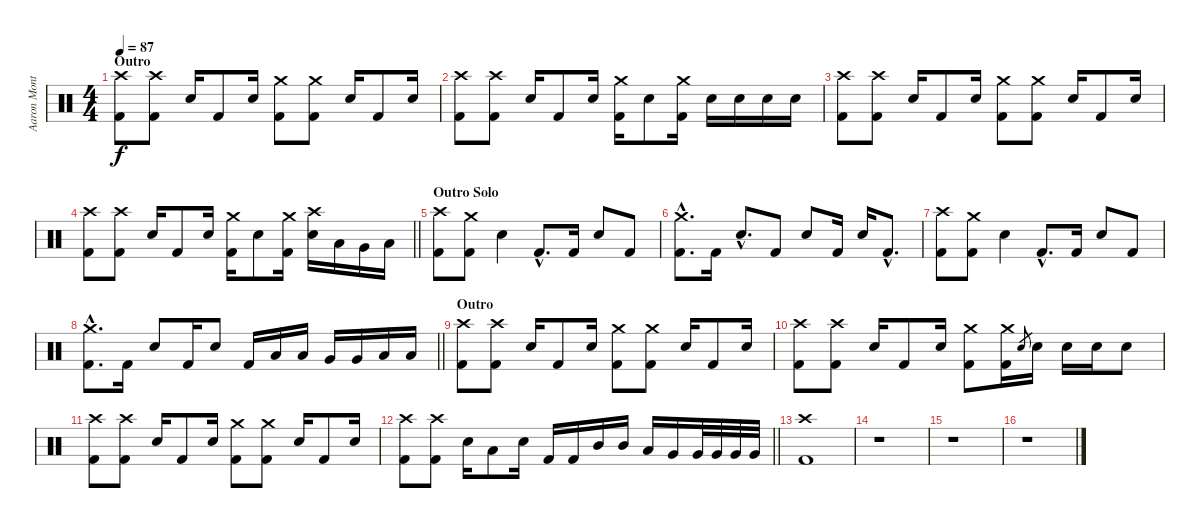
\track ("Aaron Montgomery (Drums)" "Aaron Mont") {instrument percussion}
\staff {score}
\articulation defaults
\ts (4 4)
\section ("" "Outro")
\tempo 87
\clef neutral
\ks c
("Crash high (hit)" "Kick (hit) 2").8{dy f} ("Crash high (hit)" "Kick (hit) 2").8 "Electric Snare (hit)".16 "Kick (hit) 2".8 "Electric Snare (hit)".16 ("Crash medium (hit)" "Kick (hit) 2").8 ("Crash medium (hit)" "Kick (hit) 2").8 "Electric Snare (hit)".16 "Kick (hit) 2".8 "Electric Snare (hit)".16 |
("Crash high (hit)" "Kick (hit) 2").8 ("Crash high (hit)" "Kick (hit) 2").8 "Electric Snare (hit)".16 "Kick (hit) 2".8 "Electric Snare (hit)".16 ("Crash medium (hit)" "Kick (hit) 2").16 "Electric Snare (hit)".8 ("Crash medium (hit)" "Kick (hit) 2").16 "Electric Snare (hit)".16 "Electric Snare (hit)".16 "Electric Snare (hit)".16 "Electric Snare (hit)".16 |
("Crash high (hit)" "Kick (hit) 2").8 ("Crash high (hit)" "Kick (hit) 2").8 "Electric Snare (hit)".16 "Kick (hit) 2".8 "Electric Snare (hit)".16 ("Crash medium (hit)" "Kick (hit) 2").8 ("Crash medium (hit)" "Kick (hit) 2").8 "Electric Snare (hit)".16 "Kick (hit) 2".8 "Electric Snare (hit)".16 |
\barLineRight lightlight
("Crash high (hit)" "Kick (hit) 2").8 ("Crash high (hit)" "Kick (hit) 2").8 "Electric Snare (hit)".16 "Kick (hit) 2".8 "Electric Snare (hit)".16 ("Crash medium (hit)" "Kick (hit) 2").16 "Electric Snare (hit)".8 ("Crash medium (hit)" "Kick (hit) 2").16 ("Crash high (hit)" "Electric Snare (hit)").16 "Low Tom (hit)".16 "Very Low Tom (hit)".16 "Low Floor Tom (hit)".16 |
\section ("" "Outro Solo")
("Crash high (hit)" "Kick (hit) 2").8 ("Crash medium (hit)" "Kick (hit) 2").8 "Electric Snare (hit)".4 "Kick (hit) 2"{hac}.8{d} "Kick (hit) 2".16 "Electric Snare (hit)".8 "Kick (hit) 2".8 |
("Crash medium (hit)"{hac} "Kick (hit) 2"{hac}).8{d} "Kick (hit) 2".16 "Electric Snare (hit)"{hac}.8{d} "Kick (hit) 2".8 "Electric Snare (hit)".8 "Kick (hit) 2".16 "Electric Snare (hit)".16 "Kick (hit) 2"{hac}.8{d} |
("Crash high (hit)" "Kick (hit) 2").8 ("Crash medium (hit)" "Kick (hit) 2").8 "Electric Snare (hit)".4 "Kick (hit) 2"{hac}.8{d} "Kick (hit) 2".16 "Electric Snare (hit)".8 "Kick (hit) 2".8 |
\barLineRight lightlight
("Crash medium (hit)"{hac} "Kick (hit) 2"{hac}).8{d} "Kick (hit) 2".16 "Electric Snare (hit)".8 "Kick (hit) 2".16 "Electric Snare (hit)".8 "Kick (hit) 2".16 "Low Tom (hit)".16 "Low Tom (hit)".16 "Very Low Tom (hit)".16 "Very Low Tom (hit)".16 "Low Floor Tom (hit)".16 "Low Floor Tom (hit)".16 |
\section ("" "Outro")
("Crash high (hit)" "Kick (hit) 2").8 ("Crash high (hit)" "Kick (hit) 2").8 "Electric Snare (hit)".16 "Kick (hit) 2".8 "Electric Snare (hit)".16 ("Crash medium (hit)" "Kick (hit) 2").8 ("Crash medium (hit)" "Kick (hit) 2").8 "Electric Snare (hit)".16 "Kick (hit) 2".8 "Electric Snare (hit)".16 |
("Crash high (hit)" "Kick (hit) 2").8 ("Crash high (hit)" "Kick (hit) 2").8 "Electric Snare (hit)".16 "Kick (hit) 2".8 "Electric Snare (hit)".16 ("Crash medium (hit)" "Kick (hit) 2").8 ("Crash medium (hit)" "Kick (hit) 2").16 "Electric Snare (hit)".8{gr} "Electric Snare (hit)".16 "Electric Snare (hit)".16 "Electric Snare (hit)".16 "Electric Snare (hit)".8 |
("Crash high (hit)" "Kick (hit) 2").8 ("Crash high (hit)" "Kick (hit) 2").8 "Electric Snare (hit)".16 "Kick (hit) 2".8 "Electric Snare (hit)".16 ("Crash medium (hit)" "Kick (hit) 2").8 ("Crash medium (hit)" "Kick (hit) 2").8 "Electric Snare (hit)".16 "Kick (hit) 2".8 "Electric Snare (hit)".16 |
\barLineRight lightlight
("Crash high (hit)" "Kick (hit) 2").8 ("Crash high (hit)" "Kick (hit) 2").8 "Electric Snare (hit)".16 "Low Tom (hit)".8 "Electric Snare (hit)".16 "Kick (hit) 2".16 "Kick (hit) 2".16 "Mid Tom (hit)".16 "Mid Tom (hit)".16 "Low Tom (hit)".16 "Very Low Tom (hit)".16 "Very Low Tom (hit)".32 "Very Low Tom (hit)".32 "Very Low Tom (hit)".32 "Very Low Tom (hit)".32 |
("Crash high (hit)" "Kick (hit) 2").1 |
r.1 |
r.1 |
r.1
